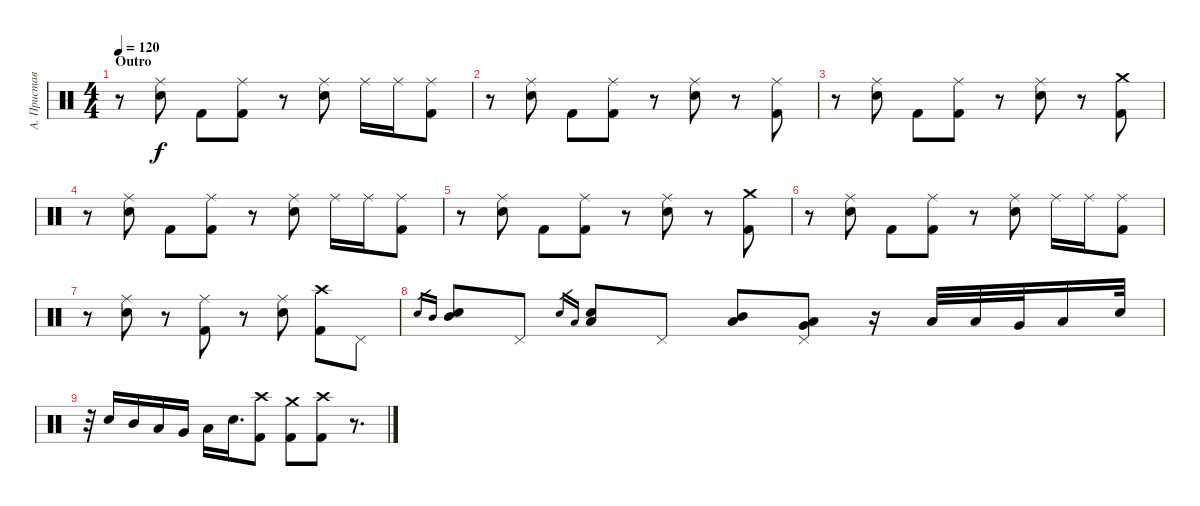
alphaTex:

\track ("А. Приставка" "А. Пристав") {instrument percussion}
\staff {score}
\articulation defaults
\ts (4 4)
\section ("" "Outro")
\tempo 120
\clef neutral
\ks c
r.8{dy f} ("Ride (middle)" "Electric Snare (hit)").8 "Kick (hit) 2".8 ("Ride (middle)" "Kick (hit) 2").8 r.8 ("Ride (middle)" "Electric Snare (hit)").8 "Ride (middle)".16 "Ride (middle)".16 ("Ride (middle)" "Kick (hit) 2").8 |
r.8 ("Ride (middle)" "Electric Snare (hit)").8 "Kick (hit) 2".8 ("Ride (middle)" "Kick (hit) 2").8 r.8 ("Ride (middle)" "Electric Snare (hit)").8 r.8 ("Ride (middle)" "Kick (hit) 2").8 |
r.8 ("Ride (middle)" "Electric Snare (hit)").8 "Kick (hit) 2".8 ("Ride (middle)" "Kick (hit) 2").8 r.8 ("Ride (middle)" "Electric Snare (hit)").8 r.8 ("Crash medium (hit)" "Kick (hit) 2").8 |
r.8 ("Ride (middle)" "Electric Snare (hit)").8 "Kick (hit) 2".8 ("Ride (middle)" "Kick (hit) 2").8 r.8 ("Ride (middle)" "Electric Snare (hit)").8 "Ride (middle)".16 "Ride (middle)".16 ("Ride (middle)" "Kick (hit) 2").8 |
r.8 ("Ride (middle)" "Electric Snare (hit)").8 "Kick (hit) 2".8 ("Ride (middle)" "Kick (hit) 2").8 r.8 ("Ride (middle)" "Electric Snare (hit)").8 r.8 ("Crash medium (hit)" "Kick (hit) 2").8 |
r.8 ("Ride (middle)" "Electric Snare (hit)").8 "Kick (hit) 2".8 ("Ride (middle)" "Kick (hit) 2").8 r.8 ("Ride (middle)" "Electric Snare (hit)").8 "Ride (middle)".16 "Ride (middle)".16 ("Ride (middle)" "Kick (hit) 2").8 |
r.8 ("Ride (middle)" "Electric Snare (hit)").8 r.8 ("Ride (middle)" "Kick (hit) 2").8 r.8 ("Ride (middle)" "Electric Snare (hit)").8 ("Crash high (hit)" "Kick (hit) 2").8 "Pedal Hi-Hat (hit)".8 |
"Electric Snare (hit)".16{gr} "Mid Tom (hit)".16{gr} ("Electric Snare (hit)" "Mid Tom (hit)").8 "Pedal Hi-Hat (hit)".8 "Electric Snare (hit)".16{gr} "Low Tom (hit)".16{gr} ("Electric Snare (hit)" "Low Tom (hit)").8 "Pedal Hi-Hat (hit)".8 ("Low Tom (hit)" "Mid Tom (hit)").8 ("Pedal Hi-Hat (hit)" "Very Low Tom (hit)" "Low Tom (hit)").8 r.16 "Low Tom (hit)".32 "Low Tom (hit)".32 "Very Low Tom (hit)".32 "Low Floor Tom (hit)".16 "Electric Snare (hit)".32 |
r.32 "Electric Snare (hit)".16 "Mid Tom (hit)".16 "Low Tom (hit)".16 "Very Low Tom (hit)".16 "Low Floor Tom (hit)".16 "Electric Snare (hit)".16{d} ("Crash high (hit)" "Kick (hit) 2").8 ("Crash medium (hit)" "Kick (hit) 2").8 ("Crash high (hit)" "Kick (hit) 2").8 r.8{d}
